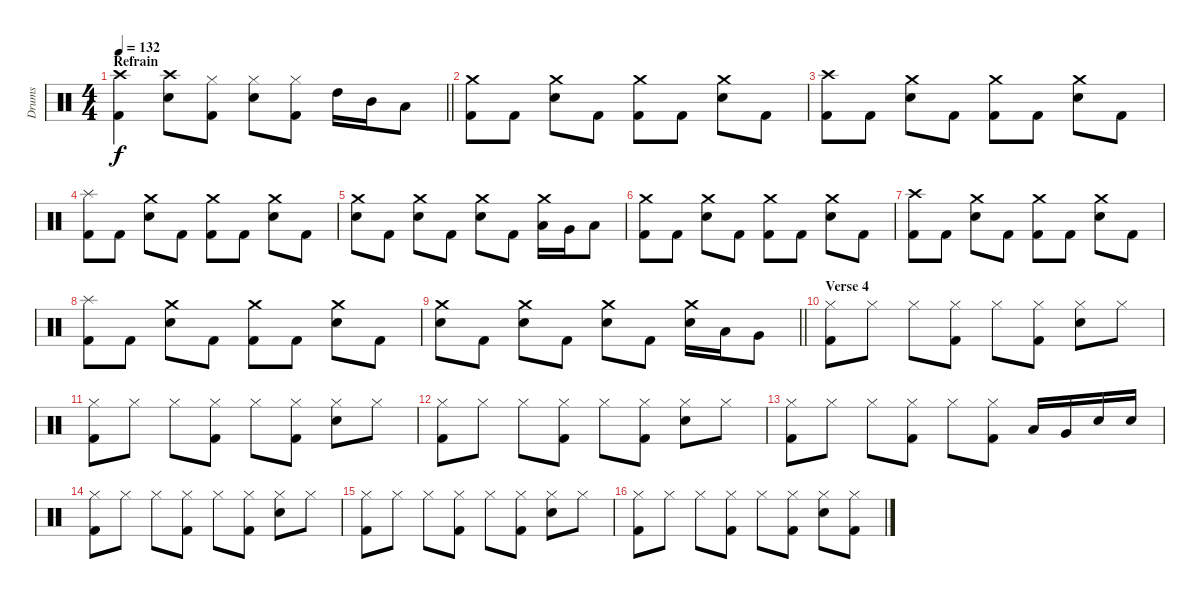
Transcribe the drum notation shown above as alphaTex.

\track ("Drums" "Drums") {instrument percussion}
\staff {score}
\articulation defaults
\ts (4 4)
\section ("" "Refrain")
\tempo 132
\clef neutral
\barLineRight lightlight
\ks c
("Kick (hit) 2" "Crash high (hit)").4{dy f} ("Electric Snare (hit)" "Crash high (hit)").8 ("Kick (hit) 2" "Hi-Hat (closed)").8 ("Electric Snare (hit)" "Hi-Hat (closed)").8 ("Kick (hit) 2" "Hi-Hat (closed)").8 "High Tom (hit)".16 "Mid Tom (hit)".16 "Low Tom (hit)".8 |
("Kick (hit) 2" "Crash medium (hit)").8 "Kick (hit) 2".8 ("Electric Snare (hit)" "Crash medium (hit)").8 "Kick (hit) 2".8 ("Kick (hit) 2" "Crash medium (hit)").8 "Kick (hit) 2".8 ("Electric Snare (hit)" "Crash medium (hit)").8 "Kick (hit) 2".8 |
("Kick (hit) 2" "Crash high (hit)").8 "Kick (hit) 2".8 ("Electric Snare (hit)" "Crash medium (hit)").8 "Kick (hit) 2".8 ("Kick (hit) 2" "Crash medium (hit)").8 "Kick (hit) 2".8 ("Electric Snare (hit)" "Crash medium (hit)").8 "Kick (hit) 2".8 |
("Kick (hit) 2" "Splash (hit)").8 "Kick (hit) 2".8 ("Electric Snare (hit)" "Crash medium (hit)").8 "Kick (hit) 2".8 ("Kick (hit) 2" "Crash medium (hit)").8 "Kick (hit) 2".8 ("Electric Snare (hit)" "Crash medium (hit)").8 "Kick (hit) 2".8 |
("Electric Snare (hit)" "Crash medium (hit)").8 "Kick (hit) 2".8 ("Electric Snare (hit)" "Crash medium (hit)").8 "Kick (hit) 2".8 ("Electric Snare (hit)" "Crash medium (hit)").8 "Kick (hit) 2".8 ("Low Tom (hit)" "Crash medium (hit)").16 "Very Low Tom (hit)".16 "Low Floor Tom (hit)".8 |
("Kick (hit) 2" "Crash medium (hit)").8 "Kick (hit) 2".8 ("Electric Snare (hit)" "Crash medium (hit)").8 "Kick (hit) 2".8 ("Kick (hit) 2" "Crash medium (hit)").8 "Kick (hit) 2".8 ("Electric Snare (hit)" "Crash medium (hit)").8 "Kick (hit) 2".8 |
("Kick (hit) 2" "Crash high (hit)").8 "Kick (hit) 2".8 ("Electric Snare (hit)" "Crash medium (hit)").8 "Kick (hit) 2".8 ("Kick (hit) 2" "Crash medium (hit)").8 "Kick (hit) 2".8 ("Electric Snare (hit)" "Crash medium (hit)").8 "Kick (hit) 2".8 |
("Kick (hit) 2" "Splash (hit)").8 "Kick (hit) 2".8 ("Electric Snare (hit)" "Crash medium (hit)").8 "Kick (hit) 2".8 ("Kick (hit) 2" "Crash medium (hit)").8 "Kick (hit) 2".8 ("Electric Snare (hit)" "Crash medium (hit)").8 "Kick (hit) 2".8 |
\barLineRight lightlight
("Electric Snare (hit)" "Crash medium (hit)").8 "Kick (hit) 2".8 ("Electric Snare (hit)" "Crash medium (hit)").8 "Kick (hit) 2".8 ("Electric Snare (hit)" "Crash medium (hit)").8 "Kick (hit) 2".8 ("Electric Snare (hit)" "Crash medium (hit)").16 "Low Tom (hit)".16 "Very Low Tom (hit)".8 |
\section ("" "Verse 4")
("Kick (hit) 2" "Hi-Hat (closed)").8 "Hi-Hat (closed)".8 "Hi-Hat (closed)".8 ("Kick (hit) 2" "Hi-Hat (closed)").8 "Hi-Hat (closed)".8 ("Kick (hit) 2" "Hi-Hat (closed)").8 ("Electric Snare (hit)" "Hi-Hat (closed)").8 "Hi-Hat (closed)".8 |
("Kick (hit) 2" "Hi-Hat (closed)").8 "Hi-Hat (closed)".8 "Hi-Hat (closed)".8 ("Kick (hit) 2" "Hi-Hat (closed)").8 "Hi-Hat (closed)".8 ("Kick (hit) 2" "Hi-Hat (closed)").8 ("Electric Snare (hit)" "Hi-Hat (closed)").8 "Hi-Hat (closed)".8 |
("Kick (hit) 2" "Hi-Hat (closed)").8 "Hi-Hat (closed)".8 "Hi-Hat (closed)".8 ("Kick (hit) 2" "Hi-Hat (closed)").8 "Hi-Hat (closed)".8 ("Kick (hit) 2" "Hi-Hat (closed)").8 ("Electric Snare (hit)" "Hi-Hat (closed)").8 "Hi-Hat (closed)".8 |
("Kick (hit) 2" "Hi-Hat (closed)").8 "Hi-Hat (closed)".8 "Hi-Hat (closed)".8 ("Kick (hit) 2" "Hi-Hat (closed)").8 "Hi-Hat (closed)".8 ("Kick (hit) 2" "Hi-Hat (closed)").8 "Low Tom (hit)".16 "Very Low Tom (hit)".16 "Electric Snare (hit)".16 "Electric Snare (hit)".16 |
("Kick (hit) 2" "Hi-Hat (closed)").8 "Hi-Hat (closed)".8 "Hi-Hat (closed)".8 ("Kick (hit) 2" "Hi-Hat (closed)").8 "Hi-Hat (closed)".8 ("Kick (hit) 2" "Hi-Hat (closed)").8 ("Electric Snare (hit)" "Hi-Hat (closed)").8 "Hi-Hat (closed)".8 |
("Kick (hit) 2" "Hi-Hat (closed)").8 "Hi-Hat (closed)".8 "Hi-Hat (closed)".8 ("Kick (hit) 2" "Hi-Hat (closed)").8 "Hi-Hat (closed)".8 ("Kick (hit) 2" "Hi-Hat (closed)").8 ("Electric Snare (hit)" "Hi-Hat (closed)").8 "Hi-Hat (closed)".8 |
("Kick (hit) 2" "Hi-Hat (closed)").8 "Hi-Hat (closed)".8 "Hi-Hat (closed)".8 ("Kick (hit) 2" "Hi-Hat (closed)").8 "Hi-Hat (closed)".8 ("Kick (hit) 2" "Hi-Hat (closed)").8 ("Electric Snare (hit)" "Hi-Hat (closed)").8 ("Kick (hit) 2" "Hi-Hat (closed)").8
